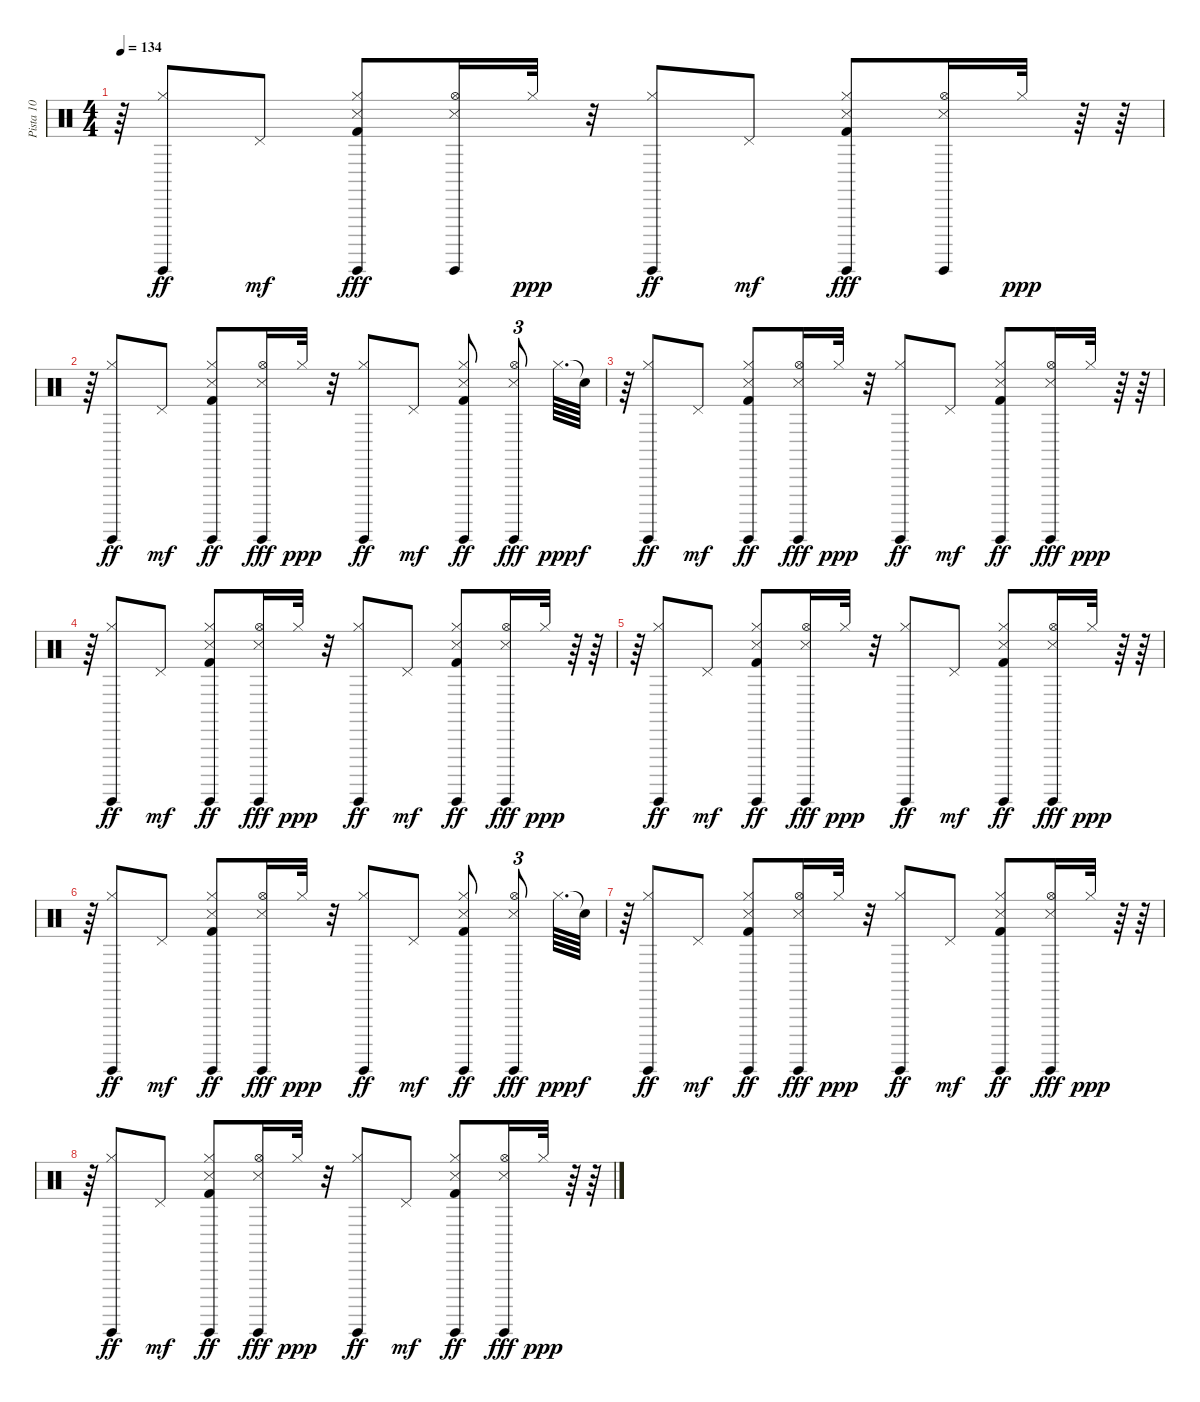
\track ("Pista 10" "Pista 10") {instrument percussion}
\staff {score}
\articulation defaults
\ts (4 4)
\tempo 134
\clef neutral
\ks c
r.64{dy ppp} ("Guiro (hit)" "Hi-Hat (closed)").8{dy ff} "Pedal Hi-Hat (hit)".8{dy mf} ("Guiro (hit)" "Hi-Hat (closed)" "Kick (hit) 2" "Snare (side stick) 3").8{dy fff} ("Guiro (hit)" "Hi-Hat (open)" "Snare (side stick) 3").16 "Hi-Hat (closed)".32{dy ppp} r.32 ("Guiro (hit)" "Hi-Hat (closed)").8{dy ff} "Pedal Hi-Hat (hit)".8{dy mf} ("Guiro (hit)" "Hi-Hat (closed)" "Kick (hit) 2" "Snare (side stick) 3").8{dy fff} ("Guiro (hit)" "Hi-Hat (open)" "Snare (side stick) 3").16 "Hi-Hat (closed)".32{dy ppp} r.64 r.64 |
r.64 ("Guiro (hit)" "Hi-Hat (closed)").8{dy ff} "Pedal Hi-Hat (hit)".8{dy mf} ("Guiro (hit)" "Hi-Hat (closed)" "Snare (side stick) 3" "Kick (hit) 2").8{dy ff} ("Guiro (hit)" "Hi-Hat (open)" "Snare (side stick) 3").16{dy fff} "Hi-Hat (closed)".32{dy ppp} r.32 ("Guiro (hit)" "Hi-Hat (closed)").8{dy ff} "Pedal Hi-Hat (hit)".8{dy mf} ("Guiro (hit)" "Hi-Hat (closed)" "Snare (side stick) 3" "Kick (hit) 2").8{dy ff} ("Guiro (hit)" "Hi-Hat (open)" "Snare (side stick) 3").8{tu (3 2) dy fff} "Hi-Hat (closed)".64{d dy ppp} "Snare (hit)"{t}.64{dy f} |
r.64 ("Guiro (hit)" "Hi-Hat (closed)").8{dy ff} "Pedal Hi-Hat (hit)".8{dy mf} ("Guiro (hit)" "Hi-Hat (closed)" "Snare (side stick) 3" "Kick (hit) 2").8{dy ff} ("Guiro (hit)" "Hi-Hat (open)" "Snare (side stick) 3").16{dy fff} "Hi-Hat (closed)".32{dy ppp} r.32 ("Guiro (hit)" "Hi-Hat (closed)").8{dy ff} "Pedal Hi-Hat (hit)".8{dy mf} ("Guiro (hit)" "Hi-Hat (closed)" "Snare (side stick) 3" "Kick (hit) 2").8{dy ff} ("Guiro (hit)" "Hi-Hat (open)" "Snare (side stick) 3").16{dy fff} "Hi-Hat (closed)".32{dy ppp} r.64 r.64 |
r.64 ("Guiro (hit)" "Hi-Hat (closed)").8{dy ff} "Pedal Hi-Hat (hit)".8{dy mf} ("Guiro (hit)" "Hi-Hat (closed)" "Snare (side stick) 3" "Kick (hit) 2").8{dy ff} ("Guiro (hit)" "Hi-Hat (open)" "Snare (side stick) 3").16{dy fff} "Hi-Hat (closed)".32{dy ppp} r.32 ("Guiro (hit)" "Hi-Hat (closed)").8{dy ff} "Pedal Hi-Hat (hit)".8{dy mf} ("Guiro (hit)" "Hi-Hat (closed)" "Snare (side stick) 3" "Kick (hit) 2").8{dy ff} ("Guiro (hit)" "Hi-Hat (open)" "Snare (side stick) 3").16{dy fff} "Hi-Hat (closed)".32{dy ppp} r.64 r.64 |
r.64 ("Guiro (hit)" "Hi-Hat (closed)").8{dy ff} "Pedal Hi-Hat (hit)".8{dy mf} ("Guiro (hit)" "Hi-Hat (closed)" "Snare (side stick) 3" "Kick (hit) 2").8{dy ff} ("Guiro (hit)" "Hi-Hat (open)" "Snare (side stick) 3").16{dy fff} "Hi-Hat (closed)".32{dy ppp} r.32 ("Guiro (hit)" "Hi-Hat (closed)").8{dy ff} "Pedal Hi-Hat (hit)".8{dy mf} ("Guiro (hit)" "Hi-Hat (closed)" "Snare (side stick) 3" "Kick (hit) 2").8{dy ff} ("Guiro (hit)" "Hi-Hat (open)" "Snare (side stick) 3").16{dy fff} "Hi-Hat (closed)".32{dy ppp} r.64 r.64 |
r.64 ("Guiro (hit)" "Hi-Hat (closed)").8{dy ff} "Pedal Hi-Hat (hit)".8{dy mf} ("Guiro (hit)" "Hi-Hat (closed)" "Snare (side stick) 3" "Kick (hit) 2").8{dy ff} ("Guiro (hit)" "Hi-Hat (open)" "Snare (side stick) 3").16{dy fff} "Hi-Hat (closed)".32{dy ppp} r.32 ("Guiro (hit)" "Hi-Hat (closed)").8{dy ff} "Pedal Hi-Hat (hit)".8{dy mf} ("Guiro (hit)" "Hi-Hat (closed)" "Snare (side stick) 3" "Kick (hit) 2").8{dy ff} ("Guiro (hit)" "Hi-Hat (open)" "Snare (side stick) 3").8{tu (3 2) dy fff} "Hi-Hat (closed)".64{d dy ppp} "Snare (hit)"{t}.64{dy f} |
r.64 ("Guiro (hit)" "Hi-Hat (closed)").8{dy ff} "Pedal Hi-Hat (hit)".8{dy mf} ("Guiro (hit)" "Hi-Hat (closed)" "Snare (side stick) 3" "Kick (hit) 2").8{dy ff} ("Guiro (hit)" "Hi-Hat (open)" "Snare (side stick) 3").16{dy fff} "Hi-Hat (closed)".32{dy ppp} r.32 ("Guiro (hit)" "Hi-Hat (closed)").8{dy ff} "Pedal Hi-Hat (hit)".8{dy mf} ("Guiro (hit)" "Hi-Hat (closed)" "Snare (side stick) 3" "Kick (hit) 2").8{dy ff} ("Guiro (hit)" "Hi-Hat (open)" "Snare (side stick) 3").16{dy fff} "Hi-Hat (closed)".32{dy ppp} r.64 r.64 |
r.64 ("Guiro (hit)" "Hi-Hat (closed)").8{dy ff} "Pedal Hi-Hat (hit)".8{dy mf} ("Guiro (hit)" "Hi-Hat (closed)" "Snare (side stick) 3" "Kick (hit) 2").8{dy ff} ("Guiro (hit)" "Hi-Hat (open)" "Snare (side stick) 3").16{dy fff} "Hi-Hat (closed)".32{dy ppp} r.32 ("Guiro (hit)" "Hi-Hat (closed)").8{dy ff} "Pedal Hi-Hat (hit)".8{dy mf} ("Guiro (hit)" "Hi-Hat (closed)" "Snare (side stick) 3" "Kick (hit) 2").8{dy ff} ("Guiro (hit)" "Hi-Hat (open)" "Snare (side stick) 3").16{dy fff} "Hi-Hat (closed)".32{dy ppp} r.64 r.64
